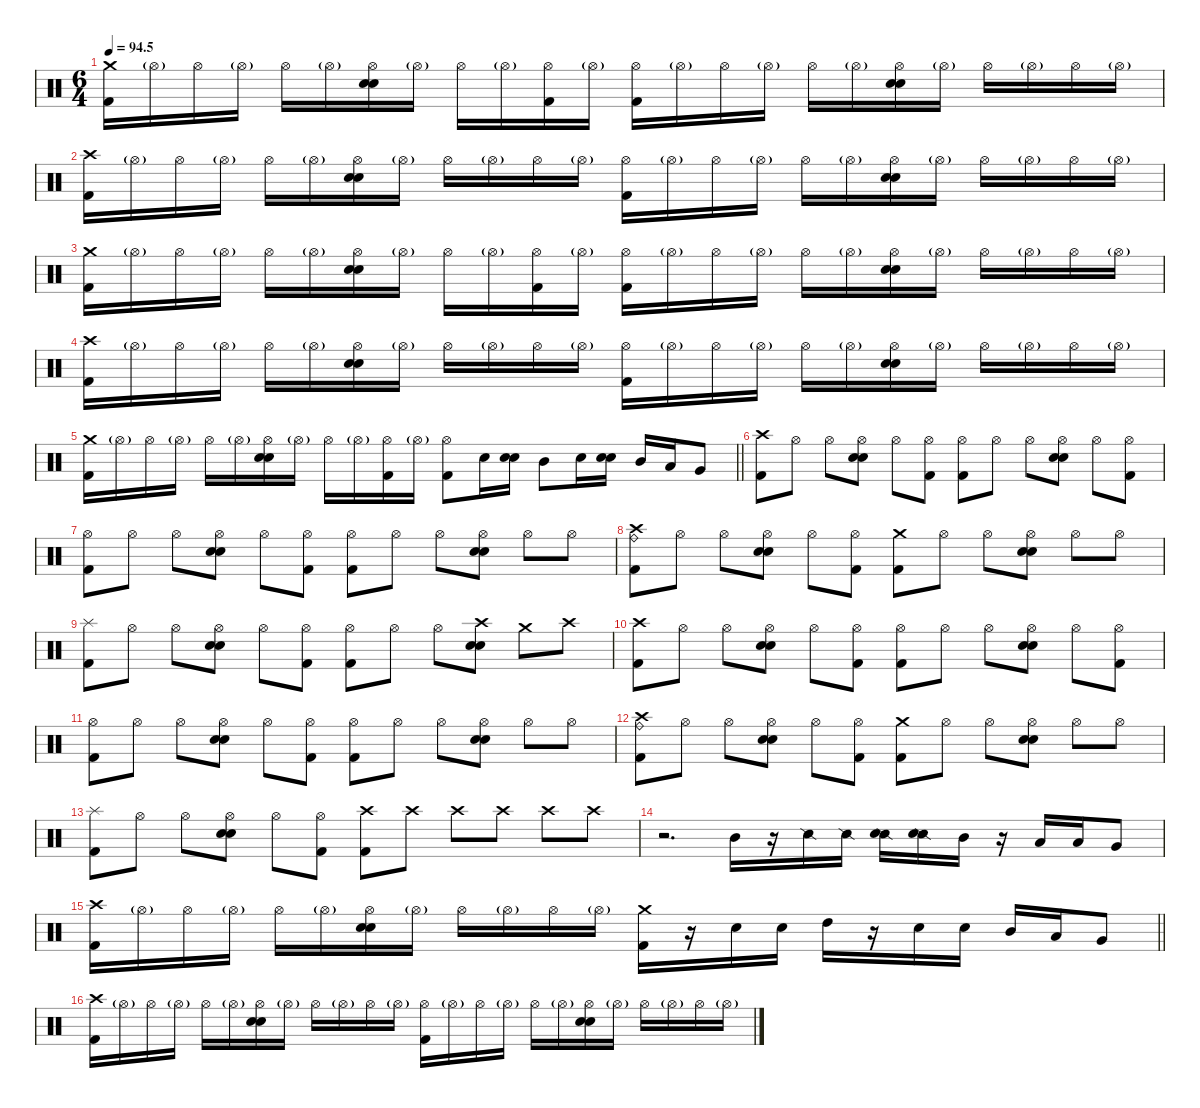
\defaultSystemsLayout 4
\hideDynamics
\bracketExtendMode nobrackets
\singleTrackTrackNamePolicy hidden
\multiTrackTrackNamePolicy hidden
\firstSystemTrackNameMode fullname
\firstSystemTrackNameOrientation horizontal
\otherSystemsTrackNameOrientation horizontal
\track ("Drums" "drm.") {defaultSystemsLayout 2 instrument percussion}
\staff {score}
\articulation defaults
\ts (6 4)
\tempo
94.5
\accidentals auto
\clef neutral
\ottava regular
\simile none
\ks c
("Crash medium (hit)" "Kick (hit) 2").16{dy mf beam Down} "Hi-Hat (open)"{g}.16{beam Down} "Hi-Hat (open)".16{beam Down} "Hi-Hat (open)"{g}.16{beam Down} "Hi-Hat (open)".16{beam Down} "Hi-Hat (open)"{g}.16{beam Down} ("Hi-Hat (open)" "Snare (hit) 2" "Metronome (bell)").16{beam Down} "Hi-Hat (open)"{g}.16{beam Down} "Hi-Hat (open)".16{beam Down} "Hi-Hat (open)"{g}.16{beam Down} ("Hi-Hat (open)" "Kick (hit) 2").16{beam Down} "Hi-Hat (open)"{g}.16{beam Down} ("Hi-Hat (open)" "Kick (hit) 2").16{beam Down} "Hi-Hat (open)"{g}.16{beam Down} "Hi-Hat (open)".16{beam Down} "Hi-Hat (open)"{g}.16{beam Down} "Hi-Hat (open)".16{beam Down} "Hi-Hat (open)"{g}.16{beam Down} ("Hi-Hat (open)" "Snare (hit) 2" "Metronome (bell)").16{beam Down} "Hi-Hat (open)"{g}.16{beam Down} "Hi-Hat (open)".16{beam Down} "Hi-Hat (open)"{g}.16{beam Down} "Hi-Hat (open)".16{beam Down} "Hi-Hat (open)"{g}.16{beam Down} |
("Crash high (hit)" "Kick (hit) 2").16{dy fff beam Down} "Hi-Hat (open)"{g}.16{dy mf beam Down} "Hi-Hat (open)".16{beam Down} "Hi-Hat (open)"{g}.16{beam Down} "Hi-Hat (open)".16{beam Down} "Hi-Hat (open)"{g}.16{beam Down} ("Hi-Hat (open)" "Snare (hit) 2" "Metronome (bell)").16{beam Down} "Hi-Hat (open)"{g}.16{beam Down} "Hi-Hat (open)".16{beam Down} "Hi-Hat (open)"{g}.16{beam Down} "Hi-Hat (open)".16{beam Down} "Hi-Hat (open)"{g}.16{beam Down} ("Hi-Hat (open)" "Kick (hit) 2").16{beam Down} "Hi-Hat (open)"{g}.16{beam Down} "Hi-Hat (open)".16{beam Down} "Hi-Hat (open)"{g}.16{beam Down} "Hi-Hat (open)".16{beam Down} "Hi-Hat (open)"{g}.16{beam Down} ("Hi-Hat (open)" "Snare (hit) 2" "Metronome (bell)").16{beam Down} "Hi-Hat (open)"{g}.16{beam Down} "Hi-Hat (open)".16{beam Down} "Hi-Hat (open)"{g}.16{beam Down} "Hi-Hat (open)".16{beam Down} "Hi-Hat (open)"{g}.16{beam Down} |
("Crash medium (hit)" "Kick (hit) 2").16{beam Down} "Hi-Hat (open)"{g}.16{beam Down} "Hi-Hat (open)".16{beam Down} "Hi-Hat (open)"{g}.16{beam Down} "Hi-Hat (open)".16{beam Down} "Hi-Hat (open)"{g}.16{beam Down} ("Hi-Hat (open)" "Snare (hit) 2" "Metronome (bell)").16{beam Down} "Hi-Hat (open)"{g}.16{beam Down} "Hi-Hat (open)".16{beam Down} "Hi-Hat (open)"{g}.16{beam Down} ("Hi-Hat (open)" "Kick (hit) 2").16{beam Down} "Hi-Hat (open)"{g}.16{beam Down} ("Hi-Hat (open)" "Kick (hit) 2").16{beam Down} "Hi-Hat (open)"{g}.16{beam Down} "Hi-Hat (open)".16{beam Down} "Hi-Hat (open)"{g}.16{beam Down} "Hi-Hat (open)".16{beam Down} "Hi-Hat (open)"{g}.16{beam Down} ("Hi-Hat (open)" "Snare (hit) 2" "Metronome (bell)").16{beam Down} "Hi-Hat (open)"{g}.16{beam Down} "Hi-Hat (open)".16{beam Down} "Hi-Hat (open)"{g}.16{beam Down} "Hi-Hat (open)".16{beam Down} "Hi-Hat (open)"{g}.16{beam Down} |
("Crash high (hit)" "Kick (hit) 2").16{dy f beam Down} "Hi-Hat (open)"{g}.16{dy mf beam Down} "Hi-Hat (open)".16{beam Down} "Hi-Hat (open)"{g}.16{beam Down} "Hi-Hat (open)".16{beam Down} "Hi-Hat (open)"{g}.16{beam Down} ("Hi-Hat (open)" "Snare (hit) 2" "Metronome (bell)").16{beam Down} "Hi-Hat (open)"{g}.16{beam Down} "Hi-Hat (open)".16{beam Down} "Hi-Hat (open)"{g}.16{beam Down} "Hi-Hat (open)".16{beam Down} "Hi-Hat (open)"{g}.16{beam Down} ("Hi-Hat (open)" "Kick (hit) 2").16{beam Down} "Hi-Hat (open)"{g}.16{beam Down} "Hi-Hat (open)".16{beam Down} "Hi-Hat (open)"{g}.16{beam Down} "Hi-Hat (open)".16{beam Down} "Hi-Hat (open)"{g}.16{beam Down} ("Hi-Hat (open)" "Snare (hit) 2" "Metronome (bell)").16{beam Down} "Hi-Hat (open)"{g}.16{beam Down} "Hi-Hat (open)".16{beam Down} "Hi-Hat (open)"{g}.16{beam Down} "Hi-Hat (open)".16{beam Down} "Hi-Hat (open)"{g}.16{beam Down} |
\barLineRight lightlight
("Crash medium (hit)" "Kick (hit) 2").16{beam Down} "Hi-Hat (open)"{g}.16{beam Down} "Hi-Hat (open)".16{beam Down} "Hi-Hat (open)"{g}.16{beam Down} "Hi-Hat (open)".16{beam Down} "Hi-Hat (open)"{g}.16{beam Down} ("Hi-Hat (open)" "Snare (hit) 2" "Metronome (bell)").16{beam Down} "Hi-Hat (open)"{g}.16{beam Down} "Hi-Hat (open)".16{beam Down} "Hi-Hat (open)"{g}.16{beam Down} ("Hi-Hat (open)" "Kick (hit) 2").16{beam Down} "Hi-Hat (open)"{g}.16{beam Down} ("Hi-Hat (open)" "Kick (hit) 2").8{beam Down} "Snare (hit) 2".16{dy f beam Down} ("Snare (hit) 2" "Metronome (bell)").16{beam Down} "Mid Tom (hit)".8{dy fff beam Down} "Snare (hit) 2".16{dy f beam Up} ("Snare (hit) 2" "Metronome (bell)").16{beam Up} "Mid Tom (hit)".16{dy fff beam Up} "Low Tom (hit)".16{dy f beam Up} "Very Low Tom (hit)".8{beam Up} |
("Crash high (hit)" "Kick (hit) 2").8{dy fff beam Down} "Hi-Hat (open)".8{dy mf beam Down} "Hi-Hat (open)".8{beam Down} ("Hi-Hat (open)" "Snare (hit) 2" "Metronome (bell)").8{beam Down} "Hi-Hat (open)".8{beam Down} ("Hi-Hat (open)" "Kick (hit) 2").8{beam Down} ("Hi-Hat (open)" "Kick (hit) 2").8{beam Down} "Hi-Hat (open)".8{beam Down} "Hi-Hat (open)".8{beam Down} ("Hi-Hat (open)" "Snare (hit) 2" "Metronome (bell)").8{beam Down} "Hi-Hat (open)".8{beam Down} ("Hi-Hat (open)" "Kick (hit) 2").8{beam Down} |
("Hi-Hat (open)" "Kick (hit) 2").8{beam Down} "Hi-Hat (open)".8{beam Down} "Hi-Hat (open)".8{beam Down} ("Hi-Hat (open)" "Snare (hit) 2" "Metronome (bell)").8{beam Down} "Hi-Hat (open)".8{beam Down} ("Hi-Hat (open)" "Kick (hit) 2").8{beam Down} ("Hi-Hat (open)" "Kick (hit) 2").8{beam Down} "Hi-Hat (open)".8{beam Down} "Hi-Hat (open)".8{beam Down} ("Hi-Hat (open)" "Snare (hit) 2" "Metronome (bell)").8{beam Down} "Hi-Hat (open)".8{beam Down} "Hi-Hat (open)".8{beam Down} |
("Crash high (hit)" "Ride (bell)" "Kick (hit) 2").8{dy fff beam Down} "Hi-Hat (open)".8{dy mf beam Down} "Hi-Hat (open)".8{beam Down} ("Hi-Hat (open)" "Snare (hit) 2" "Metronome (bell)").8{beam Down} "Hi-Hat (open)".8{beam Down} ("Hi-Hat (open)" "Kick (hit) 2").8{beam Down} ("Crash medium (hit)" "Kick (hit) 2").8{dy fff beam Down} "Hi-Hat (open)".8{dy mf beam Down} "Hi-Hat (open)".8{beam Down} ("Hi-Hat (open)" "Snare (hit) 2" "Metronome (bell)").8{beam Down} "Hi-Hat (open)".8{beam Down} "Hi-Hat (open)".8{beam Down} |
("Splash (hit)" "Kick (hit) 2").8{dy ff beam Down} "Hi-Hat (open)".8{dy mf beam Down} "Hi-Hat (open)".8{beam Down} ("Hi-Hat (open)" "Snare (hit) 2" "Metronome (bell)").8{beam Down} "Hi-Hat (open)".8{beam Down} ("Hi-Hat (open)" "Kick (hit) 2").8{beam Down} ("Hi-Hat (open)" "Kick (hit) 2").8{beam Down} "Hi-Hat (open)".8{beam Down} "Hi-Hat (open)".8{beam Down} ("Crash high (hit)" "Snare (hit) 2" "Metronome (bell)").8{dy f beam Down} "Crash medium (hit)".8{beam Down} "Crash high (hit)".8{beam Down} |
("Crash high (hit)" "Kick (hit) 2").8{dy fff beam Down} "Hi-Hat (open)".8{dy mf beam Down} "Hi-Hat (open)".8{beam Down} ("Hi-Hat (open)" "Snare (hit) 2" "Metronome (bell)").8{beam Down} "Hi-Hat (open)".8{beam Down} ("Hi-Hat (open)" "Kick (hit) 2").8{beam Down} ("Hi-Hat (open)" "Kick (hit) 2").8{beam Down} "Hi-Hat (open)".8{beam Down} "Hi-Hat (open)".8{beam Down} ("Hi-Hat (open)" "Snare (hit) 2" "Metronome (bell)").8{beam Down} "Hi-Hat (open)".8{beam Down} ("Hi-Hat (open)" "Kick (hit) 2").8{beam Down} |
("Hi-Hat (open)" "Kick (hit) 2").8{beam Down} "Hi-Hat (open)".8{beam Down} "Hi-Hat (open)".8{beam Down} ("Hi-Hat (open)" "Snare (hit) 2" "Metronome (bell)").8{beam Down} "Hi-Hat (open)".8{beam Down} ("Hi-Hat (open)" "Kick (hit) 2").8{beam Down} ("Hi-Hat (open)" "Kick (hit) 2").8{beam Down} "Hi-Hat (open)".8{beam Down} "Hi-Hat (open)".8{beam Down} ("Hi-Hat (open)" "Snare (hit) 2" "Metronome (bell)").8{beam Down} "Hi-Hat (open)".8{beam Down} "Hi-Hat (open)".8{beam Down} |
("Crash high (hit)" "Ride (bell)" "Kick (hit) 2").8{dy fff beam Down} "Hi-Hat (open)".8{dy mf beam Down} "Hi-Hat (open)".8{beam Down} ("Hi-Hat (open)" "Snare (hit) 2" "Metronome (bell)").8{beam Down} "Hi-Hat (open)".8{beam Down} ("Hi-Hat (open)" "Kick (hit) 2").8{beam Down} ("Crash medium (hit)" "Kick (hit) 2").8{dy fff beam Down} "Hi-Hat (open)".8{dy mf beam Down} "Hi-Hat (open)".8{beam Down} ("Hi-Hat (open)" "Snare (hit) 2" "Metronome (bell)").8{beam Down} "Hi-Hat (open)".8{beam Down} "Hi-Hat (open)".8{beam Down} |
("Splash (hit)" "Kick (hit) 2").8{dy ff beam Down} "Hi-Hat (open)".8{dy mf beam Down} "Hi-Hat (open)".8{beam Down} ("Hi-Hat (open)" "Snare (hit) 2" "Metronome (bell)").8{beam Down} "Hi-Hat (open)".8{beam Down} ("Hi-Hat (open)" "Kick (hit) 2").8{beam Down} ("Crash high (hit)" "Kick (hit) 2").8{dy fff beam Down} "Crash high (hit)".8{dy mf beam Down} "Crash high (hit)".8{dy mp beam Down} "Crash high (hit)".8{dy p beam Down} "Crash high (hit)".8{dy pp beam Down} "Crash high (hit)".8{beam Down} |
r.2{d beam Down} "Mid Tom (hit)".16{dy fff beam Down} r.16{beam Down} "Snare (side stick) 2".16{dy mp beam Down} "Snare (side stick) 2".16{beam Down} ("Snare (side stick) 2" "Snare (hit) 2").16{beam Down} ("Snare (side stick) 2" "Snare (hit) 2").16{beam Down} "Mid Tom (hit)".16{dy fff beam Up} r.16{beam Up} "Low Tom (hit)".16{dy ff beam Up} "Low Tom (hit)".16{beam Up} "Very Low Tom (hit)".8{dy fff beam Up} |
\barLineRight lightlight
("Crash high (hit)" "Kick (hit) 2").16{beam Down} "Hi-Hat (open)"{g}.16{dy mf beam Down} "Hi-Hat (open)".16{beam Down} "Hi-Hat (open)"{g}.16{beam Down} "Hi-Hat (open)".16{beam Down} "Hi-Hat (open)"{g}.16{beam Down} ("Hi-Hat (open)" "Snare (hit) 2" "Metronome (bell)").16{beam Down} "Hi-Hat (open)"{g}.16{beam Down} "Hi-Hat (open)".16{beam Down} "Hi-Hat (open)"{g}.16{beam Down} "Hi-Hat (open)".16{beam Down} "Hi-Hat (open)"{g}.16{beam Down} ("Crash medium (hit)" "Kick (hit) 2").16{dy fff beam Down} r.16{beam Down} "Snare (hit) 2".16{dy mp beam Down} "Snare (hit) 2".16{dy f beam Down} "High Tom (hit)".16{dy ff beam Down} r.16{beam Down} "Snare (hit) 2".16{dy mp beam Up} "Snare (hit) 2".16{dy f beam Up} "Mid Tom (hit)".16{beam Up} "Low Tom (hit)".16{beam Up} "Very Low Tom (hit)".8{beam Up} |
("Crash high (hit)" "Kick (hit) 2").16{dy fff beam Down} "Hi-Hat (open)"{g}.16{dy mf beam Down} "Hi-Hat (open)".16{beam Down} "Hi-Hat (open)"{g}.16{beam Down} "Hi-Hat (open)".16{beam Down} "Hi-Hat (open)"{g}.16{beam Down} ("Hi-Hat (open)" "Snare (hit) 2" "Metronome (bell)").16{beam Down} "Hi-Hat (open)"{g}.16{beam Down} "Hi-Hat (open)".16{beam Down} "Hi-Hat (open)"{g}.16{beam Down} "Hi-Hat (open)".16{beam Down} "Hi-Hat (open)"{g}.16{beam Down} ("Hi-Hat (open)" "Kick (hit) 2").16{beam Down} "Hi-Hat (open)"{g}.16{beam Down} "Hi-Hat (open)".16{beam Down} "Hi-Hat (open)"{g}.16{beam Down} "Hi-Hat (open)".16{beam Down} "Hi-Hat (open)"{g}.16{beam Down} ("Hi-Hat (open)" "Snare (hit) 2" "Metronome (bell)").16{beam Down} "Hi-Hat (open)"{g}.16{beam Down} "Hi-Hat (open)".16{beam Down} "Hi-Hat (open)"{g}.16{beam Down} "Hi-Hat (open)".16{beam Down} "Hi-Hat (open)"{g}.16{beam Down}
